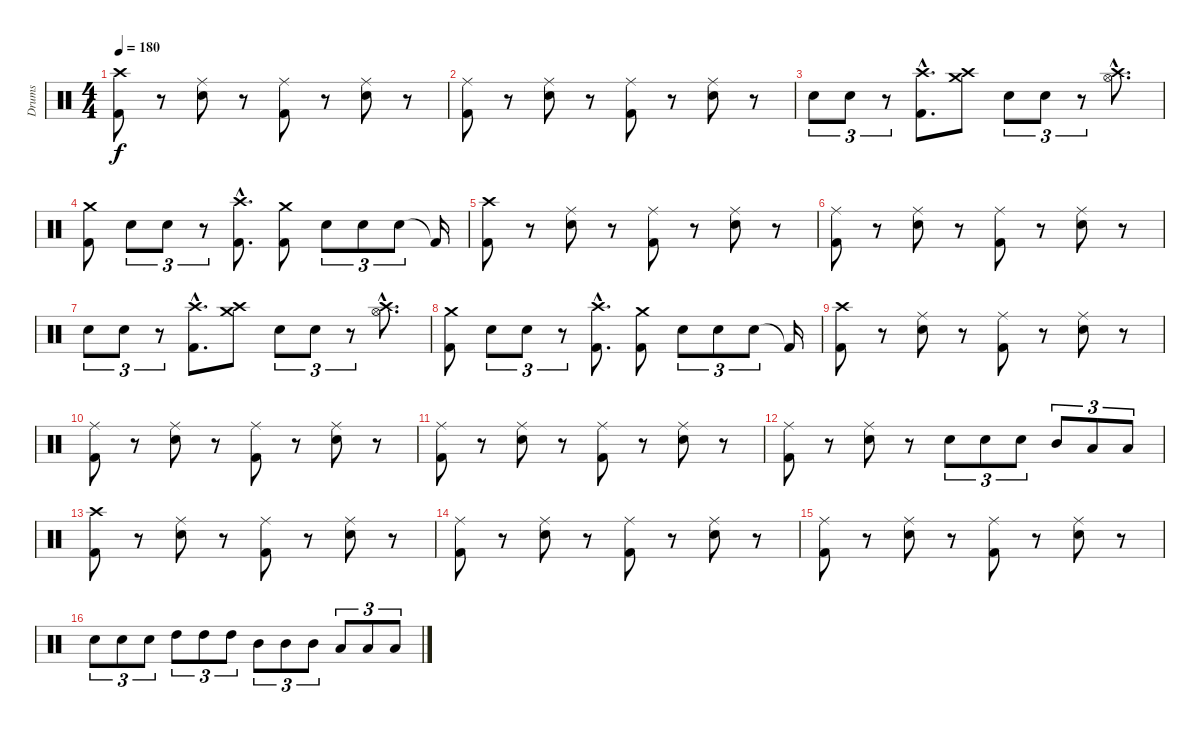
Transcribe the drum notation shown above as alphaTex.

\track ("Drums" "Drums") {instrument percussion}
\staff {score}
\articulation defaults
\ts (4 4)
\tempo 180
\clef neutral
\ks c
("Crash high (hit)" "Kick (hit) 2").8{dy f} r.8 ("Ride (middle)" "Electric Snare (hit)").8 r.8 ("Ride (middle)" "Kick (hit) 2").8 r.8 ("Ride (middle)" "Electric Snare (hit)").8 r.8 |
("Ride (middle)" "Kick (hit) 2").8 r.8 ("Ride (middle)" "Electric Snare (hit)").8 r.8 ("Ride (middle)" "Kick (hit) 2").8 r.8 ("Ride (middle)" "Electric Snare (hit)").8 r.8 |
"Electric Snare (hit)".8{tu (3 2)} "Electric Snare (hit)".8{tu (3 2)} r.8{tu (3 2)} ("Crash high (hit)"{hac} "Kick (hit) 2"{hac}).8{d} ("Crash medium (hit)" "Crash high (hit)").8 "Electric Snare (hit)".8{tu (3 2)} "Electric Snare (hit)".8{tu (3 2)} r.8{tu (3 2)} ("Crash high (hit)"{hac} "Hi-Hat (open)"{hac}).8{d} |
("Crash medium (hit)" "Kick (hit) 2").8 "Electric Snare (hit)".8{tu (3 2)} "Electric Snare (hit)".8{tu (3 2)} r.8{tu (3 2)} ("Crash high (hit)"{hac} "Kick (hit) 2"{hac}).8{d} ("Crash medium (hit)" "Kick (hit) 2").8 "Electric Snare (hit)".8{tu (3 2)} "Electric Snare (hit)".8{tu (3 2)} "Electric Snare (hit)".8{tu (3 2)} "Kick (hit) 2"{t}.16 |
("Crash high (hit)" "Kick (hit) 2").8 r.8 ("Ride (middle)" "Electric Snare (hit)").8 r.8 ("Ride (middle)" "Kick (hit) 2").8 r.8 ("Ride (middle)" "Electric Snare (hit)").8 r.8 |
("Ride (middle)" "Kick (hit) 2").8 r.8 ("Ride (middle)" "Electric Snare (hit)").8 r.8 ("Ride (middle)" "Kick (hit) 2").8 r.8 ("Ride (middle)" "Electric Snare (hit)").8 r.8 |
"Electric Snare (hit)".8{tu (3 2)} "Electric Snare (hit)".8{tu (3 2)} r.8{tu (3 2)} ("Crash high (hit)"{hac} "Kick (hit) 2"{hac}).8{d} ("Crash medium (hit)" "Crash high (hit)").8 "Electric Snare (hit)".8{tu (3 2)} "Electric Snare (hit)".8{tu (3 2)} r.8{tu (3 2)} ("Crash high (hit)"{hac} "Hi-Hat (open)"{hac}).8{d} |
("Crash medium (hit)" "Kick (hit) 2").8 "Electric Snare (hit)".8{tu (3 2)} "Electric Snare (hit)".8{tu (3 2)} r.8{tu (3 2)} ("Crash high (hit)"{hac} "Kick (hit) 2"{hac}).8{d} ("Crash medium (hit)" "Kick (hit) 2").8 "Electric Snare (hit)".8{tu (3 2)} "Electric Snare (hit)".8{tu (3 2)} "Electric Snare (hit)".8{tu (3 2)} "Kick (hit) 2"{t}.16 |
("Crash high (hit)" "Kick (hit) 2").8 r.8 ("Ride (middle)" "Electric Snare (hit)").8 r.8 ("Ride (middle)" "Kick (hit) 2").8 r.8 ("Ride (middle)" "Electric Snare (hit)").8 r.8 |
("Ride (middle)" "Kick (hit) 2").8 r.8 ("Ride (middle)" "Electric Snare (hit)").8 r.8 ("Ride (middle)" "Kick (hit) 2").8 r.8 ("Ride (middle)" "Electric Snare (hit)").8 r.8 |
("Ride (middle)" "Kick (hit) 2").8 r.8 ("Ride (middle)" "Electric Snare (hit)").8 r.8 ("Ride (middle)" "Kick (hit) 2").8 r.8 ("Ride (middle)" "Electric Snare (hit)").8 r.8 |
("Ride (middle)" "Kick (hit) 2").8 r.8 ("Ride (middle)" "Electric Snare (hit)").8 r.8 "Electric Snare (hit)".8{tu (3 2)} "Electric Snare (hit)".8{tu (3 2)} "Electric Snare (hit)".8{tu (3 2)} "Mid Tom (hit)".8{tu (3 2)} "Low Tom (hit)".8{tu (3 2)} "Low Tom (hit)".8{tu (3 2)} |
("Crash high (hit)" "Kick (hit) 2").8 r.8 ("Ride (middle)" "Electric Snare (hit)").8 r.8 ("Ride (middle)" "Kick (hit) 2").8 r.8 ("Ride (middle)" "Electric Snare (hit)").8 r.8 |
("Ride (middle)" "Kick (hit) 2").8 r.8 ("Ride (middle)" "Electric Snare (hit)").8 r.8 ("Ride (middle)" "Kick (hit) 2").8 r.8 ("Ride (middle)" "Electric Snare (hit)").8 r.8 |
("Ride (middle)" "Kick (hit) 2").8 r.8 ("Ride (middle)" "Electric Snare (hit)").8 r.8 ("Ride (middle)" "Kick (hit) 2").8 r.8 ("Ride (middle)" "Electric Snare (hit)").8 r.8 |
"Electric Snare (hit)".8{tu (3 2)} "Electric Snare (hit)".8{tu (3 2)} "Electric Snare (hit)".8{tu (3 2)} "High Tom (hit)".8{tu (3 2)} "High Tom (hit)".8{tu (3 2)} "High Tom (hit)".8{tu (3 2)} "Mid Tom (hit)".8{tu (3 2)} "Mid Tom (hit)".8{tu (3 2)} "Mid Tom (hit)".8{tu (3 2)} "Low Tom (hit)".8{tu (3 2)} "Low Tom (hit)".8{tu (3 2)} "Low Tom (hit)".8{tu (3 2)}
